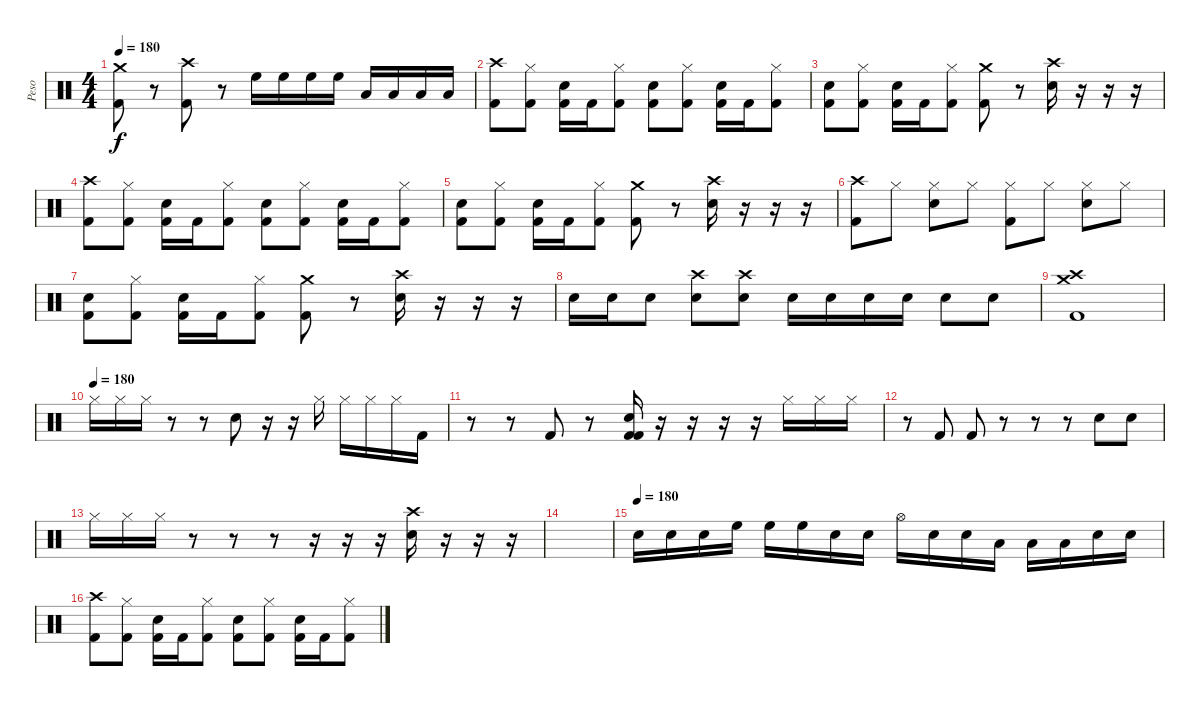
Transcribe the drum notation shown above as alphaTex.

\track ("Peso" "Peso") {instrument percussion}
\staff {score}
\articulation defaults
\ts (4 4)
\tempo 180
\clef neutral
\ks c
("Crash medium (hit)" "Kick (hit) 2").8{dy f} r.8 ("Crash high (hit)" "Kick (hit) 2").8 r.8 "High Floor Tom (hit)".16 "High Floor Tom (hit)".16 "High Floor Tom (hit)".16 "High Floor Tom (hit)".16 "Low Floor Tom (hit)".16 "Low Floor Tom (hit)".16 "Low Floor Tom (hit)".16 "Low Floor Tom (hit)".16 |
("Crash high (hit)" "Kick (hit) 2").8 ("Hi-Hat (closed)" "Kick (hit) 2").8 ("Snare (hit) 2" "Kick (hit) 2").16 "Kick (hit) 2".16 ("Hi-Hat (closed)" "Kick (hit) 2").8 ("Snare (hit) 2" "Kick (hit) 2").8 ("Hi-Hat (closed)" "Kick (hit) 2").8 ("Snare (hit) 2" "Kick (hit) 2").16 "Kick (hit) 2".16 ("Hi-Hat (closed)" "Kick (hit) 2").8 |
("Snare (hit) 2" "Kick (hit) 2").8 ("Hi-Hat (closed)" "Kick (hit) 2").8 ("Snare (hit) 2" "Kick (hit) 2").16 "Kick (hit) 2".16 ("Hi-Hat (closed)" "Kick (hit) 2").8 ("Crash medium (hit)" "Kick (hit) 2").8 r.8 ("Crash high (hit)" "Snare (hit) 2").16 r.16 r.16 r.16 |
("Crash high (hit)" "Kick (hit) 2").8 ("Hi-Hat (closed)" "Kick (hit) 2").8 ("Snare (hit) 2" "Kick (hit) 2").16 "Kick (hit) 2".16 ("Hi-Hat (closed)" "Kick (hit) 2").8 ("Snare (hit) 2" "Kick (hit) 2").8 ("Hi-Hat (closed)" "Kick (hit) 2").8 ("Snare (hit) 2" "Kick (hit) 2").16 "Kick (hit) 2".16 ("Hi-Hat (closed)" "Kick (hit) 2").8 |
("Snare (hit) 2" "Kick (hit) 2").8 ("Hi-Hat (closed)" "Kick (hit) 2").8 ("Snare (hit) 2" "Kick (hit) 2").16 "Kick (hit) 2".16 ("Hi-Hat (closed)" "Kick (hit) 2").8 ("Crash medium (hit)" "Kick (hit) 2").8 r.8 ("Crash high (hit)" "Snare (hit) 2").16 r.16 r.16 r.16 |
("Crash high (hit)" "Kick (hit) 2").8 "Hi-Hat (closed)".8 ("Hi-Hat (closed)" "Snare (hit) 2").8 "Hi-Hat (closed)".8 ("Hi-Hat (closed)" "Kick (hit) 2").8 "Hi-Hat (closed)".8 ("Hi-Hat (closed)" "Snare (hit) 2").8 "Hi-Hat (closed)".8 |
("Snare (hit) 2" "Kick (hit) 2").8 ("Hi-Hat (closed)" "Kick (hit) 2").8 ("Snare (hit) 2" "Kick (hit) 2").16 "Kick (hit) 2".16 ("Hi-Hat (closed)" "Kick (hit) 2").8 ("Crash medium (hit)" "Kick (hit) 2").8 r.8 ("Crash high (hit)" "Snare (hit) 2").16 r.16 r.16 r.16 |
"Snare (hit) 2".16 "Snare (hit) 2".16 "Snare (hit) 2".8 ("Crash high (hit)" "Snare (hit) 2").8 ("Crash high (hit)" "Snare (hit) 2").8 "Snare (hit) 2".16 "Snare (hit) 2".16 "Snare (hit) 2".16 "Snare (hit) 2".16 "Snare (hit) 2".8 "Snare (hit) 2".8 |
("Crash high (hit)" "Crash medium (hit)" "Kick (hit) 2").1 |
\tempo (180)
"Hi-Hat (closed)".16 "Hi-Hat (closed)".16 "Hi-Hat (closed)".16 r.8 r.8 "Snare (hit) 2".8 r.16 r.16 "Hi-Hat (closed)".16 "Hi-Hat (closed)".16 "Hi-Hat (closed)".16 "Hi-Hat (closed)".16 "Kick (hit) 2".16 |
r.8 r.8 "Kick (hit) 2".8 r.8 ("Snare (hit) 2" "Kick (hit) 2" "Kick (hit) 2").16 r.16 r.16 r.16 r.16 "Hi-Hat (closed)".16 "Hi-Hat (closed)".16 "Hi-Hat (closed)".16 |
r.8 "Kick (hit) 2".8 "Kick (hit) 2".8 r.8 r.8 r.8 "Snare (hit) 2".8 "Snare (hit) 2"{x}.8 |
"Hi-Hat (closed)".16 "Hi-Hat (closed)".16 "Hi-Hat (closed)".16 r.8 r.8 r.8 r.16 r.16 r.16 ("Crash high (hit)" "Snare (hit) 2").16 r.16 r.16 r.16 |
|
\tempo (180)
"Snare (hit) 2".16 "Snare (hit) 2".16 "Snare (hit) 2".16 "High Floor Tom (hit)".16 "High Floor Tom (hit)".16 "High Floor Tom (hit)".16 "Snare (hit) 2".16 "Snare (hit) 2".16 "Hi-Hat (open)".16 "Snare (hit) 2".16 "Snare (hit) 2".16 "Low Floor Tom (hit)".16 "Low Floor Tom (hit)".16 "Low Floor Tom (hit)".16 "Snare (hit) 2".16 "Snare (hit) 2".16 |
("Crash high (hit)" "Kick (hit) 2").8 ("Hi-Hat (closed)" "Kick (hit) 2").8 ("Snare (hit) 2" "Kick (hit) 2").16 "Kick (hit) 2".16 ("Hi-Hat (closed)" "Kick (hit) 2").8 ("Snare (hit) 2" "Kick (hit) 2").8 ("Hi-Hat (closed)" "Kick (hit) 2").8 ("Snare (hit) 2" "Kick (hit) 2").16 "Kick (hit) 2".16 ("Hi-Hat (closed)" "Kick (hit) 2").8
